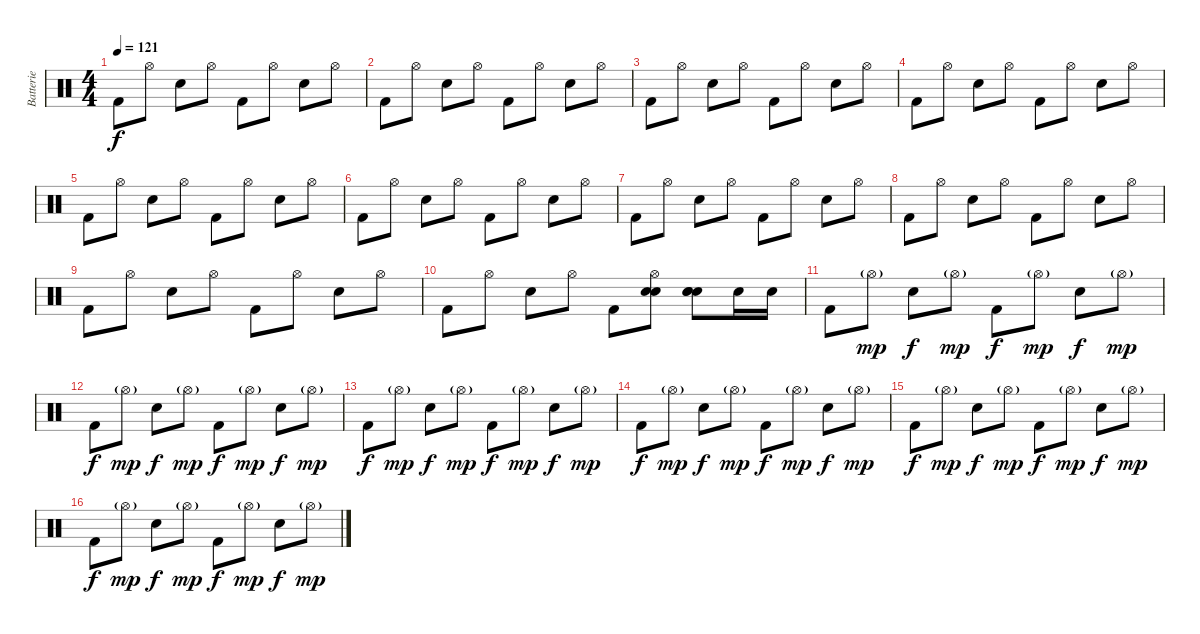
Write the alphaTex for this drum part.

\track ("Batterie" "Batterie") {instrument percussion}
\staff {score}
\articulation defaults
\ts (4 4)
\tempo 121
\clef neutral
\ks c "Kick (hit) 2".8{dy f} "Hi-Hat (open)".8 "Snare (hit) 2".8 "Hi-Hat (open)".8 "Kick (hit) 2".8 "Hi-Hat (open)".8 "Snare (hit) 2".8 "Hi-Hat (open)".8
|
"Kick (hit) 2".8 "Hi-Hat (open)".8 "Snare (hit) 2".8 "Hi-Hat (open)".8 "Kick (hit) 2".8 "Hi-Hat (open)".8 "Snare (hit) 2".8 "Hi-Hat (open)".8 |
"Kick (hit) 2".8 "Hi-Hat (open)".8 "Snare (hit) 2".8 "Hi-Hat (open)".8 "Kick (hit) 2".8 "Hi-Hat (open)".8 "Snare (hit) 2".8 "Hi-Hat (open)".8 |
"Kick (hit) 2".8 "Hi-Hat (open)".8 "Snare (hit) 2".8 "Hi-Hat (open)".8 "Kick (hit) 2".8 "Hi-Hat (open)".8 "Snare (hit) 2".8 "Hi-Hat (open)".8 |
"Kick (hit) 2".8 "Hi-Hat (open)".8 "Snare (hit) 2".8 "Hi-Hat (open)".8 "Kick (hit) 2".8 "Hi-Hat (open)".8 "Snare (hit) 2".8 "Hi-Hat (open)".8 |
"Kick (hit) 2".8 "Hi-Hat (open)".8 "Snare (hit) 2".8 "Hi-Hat (open)".8 "Kick (hit) 2".8 "Hi-Hat (open)".8 "Snare (hit) 2".8 "Hi-Hat (open)".8 |
"Kick (hit) 2".8 "Hi-Hat (open)".8 "Snare (hit) 2".8 "Hi-Hat (open)".8 "Kick (hit) 2".8 "Hi-Hat (open)".8 "Snare (hit) 2".8 "Hi-Hat (open)".8 |
"Kick (hit) 2".8 "Hi-Hat (open)".8 "Snare (hit) 2".8 "Hi-Hat (open)".8 "Kick (hit) 2".8 "Hi-Hat (open)".8 "Snare (hit) 2".8 "Hi-Hat (open)".8 |
"Kick (hit) 2".8 "Hi-Hat (open)".8 "Snare (hit) 2".8 "Hi-Hat (open)".8 "Kick (hit) 2".8 "Hi-Hat (open)".8 "Snare (hit) 2".8 "Hi-Hat (open)".8 |
"Kick (hit) 2".8 "Hi-Hat (open)".8 "Snare (hit) 2".8 "Hi-Hat (open)".8 "Kick (hit) 2".8 ("Hi-Hat (open)" "Hand Clap (hit)" "Hand Clap (hit)").8 ("Snare (hit) 2" "Hand Clap (hit)" "Hand Clap (hit)").8 "Electric Snare (hit)".16 "Electric Snare (hit)".16 |
"Kick (hit) 2".8 "Hi-Hat (open)"{g}.8{dy mp} "Electric Snare (hit)".8{dy f} "Hi-Hat (open)"{g}.8{dy mp} "Kick (hit) 2".8{dy f} "Hi-Hat (open)"{g}.8{dy mp} "Electric Snare (hit)".8{dy f} "Hi-Hat (open)"{g}.8{dy mp} |
"Kick (hit) 2".8{dy f} "Hi-Hat (open)"{g}.8{dy mp} "Electric Snare (hit)".8{dy f} "Hi-Hat (open)"{g}.8{dy mp} "Kick (hit) 2".8{dy f} "Hi-Hat (open)"{g}.8{dy mp} "Electric Snare (hit)".8{dy f} "Hi-Hat (open)"{g}.8{dy mp} |
"Kick (hit) 2".8{dy f} "Hi-Hat (open)"{g}.8{dy mp} "Electric Snare (hit)".8{dy f} "Hi-Hat (open)"{g}.8{dy mp} "Kick (hit) 2".8{dy f} "Hi-Hat (open)"{g}.8{dy mp} "Electric Snare (hit)".8{dy f} "Hi-Hat (open)"{g}.8{dy mp} |
"Kick (hit) 2".8{dy f} "Hi-Hat (open)"{g}.8{dy mp} "Electric Snare (hit)".8{dy f} "Hi-Hat (open)"{g}.8{dy mp} "Kick (hit) 2".8{dy f} "Hi-Hat (open)"{g}.8{dy mp} "Electric Snare (hit)".8{dy f} "Hi-Hat (open)"{g}.8{dy mp} |
"Kick (hit) 2".8{dy f} "Hi-Hat (open)"{g}.8{dy mp} "Electric Snare (hit)".8{dy f} "Hi-Hat (open)"{g}.8{dy mp} "Kick (hit) 2".8{dy f} "Hi-Hat (open)"{g}.8{dy mp} "Electric Snare (hit)".8{dy f} "Hi-Hat (open)"{g}.8{dy mp} |
"Kick (hit) 2".8{dy f} "Hi-Hat (open)"{g}.8{dy mp} "Electric Snare (hit)".8{dy f} "Hi-Hat (open)"{g}.8{dy mp} "Kick (hit) 2".8{dy f} "Hi-Hat (open)"{g}.8{dy mp} "Electric Snare (hit)".8{dy f} "Hi-Hat (open)"{g}.8{dy mp}
